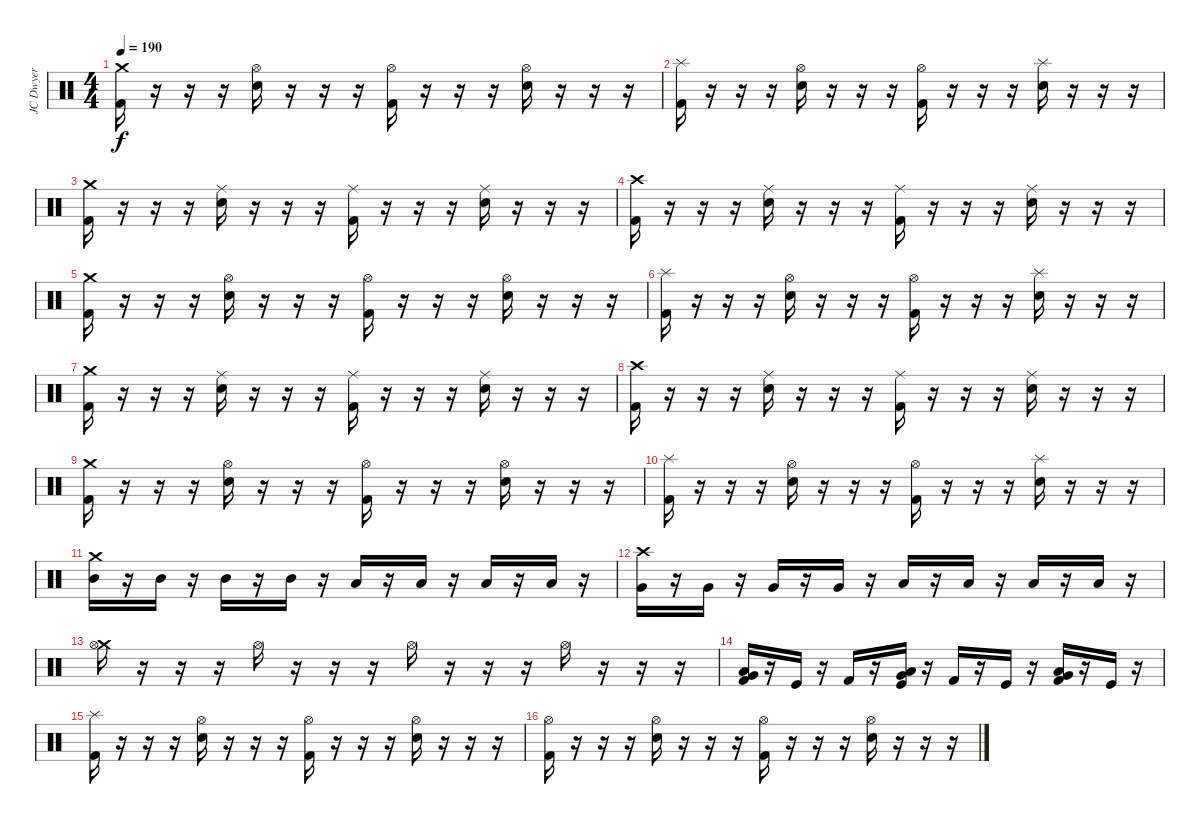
\track ("JC Dwyer" "JC Dwyer") {instrument percussion}
\staff {score}
\articulation defaults
\ts (4 4)
\tempo 190
\clef neutral
\ks c
("Crash medium (hit)" "Kick (hit) 2").16{dy f} r.16 r.16 r.16 ("Hi-Hat (open)" "Electric Snare (hit)").16 r.16 r.16 r.16 ("Hi-Hat (open)" "Kick (hit) 2").16 r.16 r.16 r.16 ("Hi-Hat (open)" "Electric Snare (hit)").16 r.16 r.16 r.16 |
("Splash (hit)" "Kick (hit) 2").16 r.16 r.16 r.16 ("Hi-Hat (open)" "Electric Snare (hit)").16 r.16 r.16 r.16 ("Hi-Hat (open)" "Kick (hit) 2").16 r.16 r.16 r.16 ("Splash (hit)" "Electric Snare (hit)").16 r.16 r.16 r.16 |
("Crash medium (hit)" "Kick (hit) 2").16 r.16 r.16 r.16 ("Ride (middle)" "Electric Snare (hit)").16 r.16 r.16 r.16 ("Ride (middle)" "Kick (hit) 2").16 r.16 r.16 r.16 ("Ride (middle)" "Electric Snare (hit)").16 r.16 r.16 r.16 |
("Crash high (hit)" "Kick (hit) 2").16 r.16 r.16 r.16 ("Ride (middle)" "Electric Snare (hit)").16 r.16 r.16 r.16 ("Ride (middle)" "Kick (hit) 2").16 r.16 r.16 r.16 ("Ride (middle)" "Electric Snare (hit)").16 r.16 r.16 r.16 |
("Crash medium (hit)" "Kick (hit) 2").16 r.16 r.16 r.16 ("Hi-Hat (open)" "Electric Snare (hit)").16 r.16 r.16 r.16 ("Hi-Hat (open)" "Kick (hit) 2").16 r.16 r.16 r.16 ("Hi-Hat (open)" "Electric Snare (hit)").16 r.16 r.16 r.16 |
("Splash (hit)" "Kick (hit) 2").16 r.16 r.16 r.16 ("Hi-Hat (open)" "Electric Snare (hit)").16 r.16 r.16 r.16 ("Hi-Hat (open)" "Kick (hit) 2").16 r.16 r.16 r.16 ("Splash (hit)" "Electric Snare (hit)").16 r.16 r.16 r.16 |
("Crash medium (hit)" "Kick (hit) 2").16 r.16 r.16 r.16 ("Ride (middle)" "Electric Snare (hit)").16 r.16 r.16 r.16 ("Ride (middle)" "Kick (hit) 2").16 r.16 r.16 r.16 ("Ride (middle)" "Electric Snare (hit)").16 r.16 r.16 r.16 |
("Crash high (hit)" "Kick (hit) 2").16 r.16 r.16 r.16 ("Ride (middle)" "Electric Snare (hit)").16 r.16 r.16 r.16 ("Ride (middle)" "Kick (hit) 2").16 r.16 r.16 r.16 ("Ride (middle)" "Electric Snare (hit)").16 r.16 r.16 r.16 |
("Crash medium (hit)" "Kick (hit) 2").16 r.16 r.16 r.16 ("Hi-Hat (open)" "Electric Snare (hit)").16 r.16 r.16 r.16 ("Hi-Hat (open)" "Kick (hit) 2").16 r.16 r.16 r.16 ("Hi-Hat (open)" "Electric Snare (hit)").16 r.16 r.16 r.16 |
("Splash (hit)" "Kick (hit) 2").16 r.16 r.16 r.16 ("Hi-Hat (open)" "Electric Snare (hit)").16 r.16 r.16 r.16 ("Hi-Hat (open)" "Kick (hit) 2").16 r.16 r.16 r.16 ("Splash (hit)" "Electric Snare (hit)").16 r.16 r.16 r.16 |
("Crash medium (hit)" "Mid Tom (hit)").16 r.16 "Mid Tom (hit)".16 r.16 "Mid Tom (hit)".16 r.16 "Mid Tom (hit)".16 r.16 "Low Tom (hit)".16 r.16 "Low Tom (hit)".16 r.16 "Low Tom (hit)".16 r.16 "Low Tom (hit)".16 r.16 |
("Crash high (hit)" "Very Low Tom (hit)").16 r.16 "Very Low Tom (hit)".16 r.16 "Very Low Tom (hit)".16 r.16 "Very Low Tom (hit)".16 r.16 "Low Floor Tom (hit)".16 r.16 "Low Floor Tom (hit)".16 r.16 "Low Floor Tom (hit)".16 r.16 "Low Floor Tom (hit)".16 r.16 |
("Crash medium (hit)" "Hi-Hat (open)").16 r.16 r.16 r.16 "Hi-Hat (open)".16 r.16 r.16 r.16 "Hi-Hat (open)".16 r.16 r.16 r.16 "Hi-Hat (open)".16 r.16 r.16 r.16 |
("Very Low Tom (hit)" "Low Floor Tom (hit)" "Kick (hit) 2").16 r.16 "Kick (hit)".16 r.16 "Kick (hit) 2".16 r.16 ("Very Low Tom (hit)" "Low Floor Tom (hit)" "Kick (hit)").16 r.16 "Kick (hit) 2".16 r.16 "Kick (hit)".16 r.16 ("Very Low Tom (hit)" "Low Floor Tom (hit)" "Kick (hit) 2").16 r.16 "Kick (hit)".16 r.16 |
("Splash (hit)" "Kick (hit) 2").16 r.16 r.16 r.16 ("Hi-Hat (open)" "Electric Snare (hit)").16 r.16 r.16 r.16 ("Hi-Hat (open)" "Kick (hit) 2").16 r.16 r.16 r.16 ("Hi-Hat (open)" "Electric Snare (hit)").16 r.16 r.16 r.16 |
("Hi-Hat (open)" "Kick (hit) 2").16 r.16 r.16 r.16 ("Hi-Hat (open)" "Electric Snare (hit)").16 r.16 r.16 r.16 ("Hi-Hat (open)" "Kick (hit) 2").16 r.16 r.16 r.16 ("Hi-Hat (open)" "Electric Snare (hit)").16 r.16 r.16 r.16
